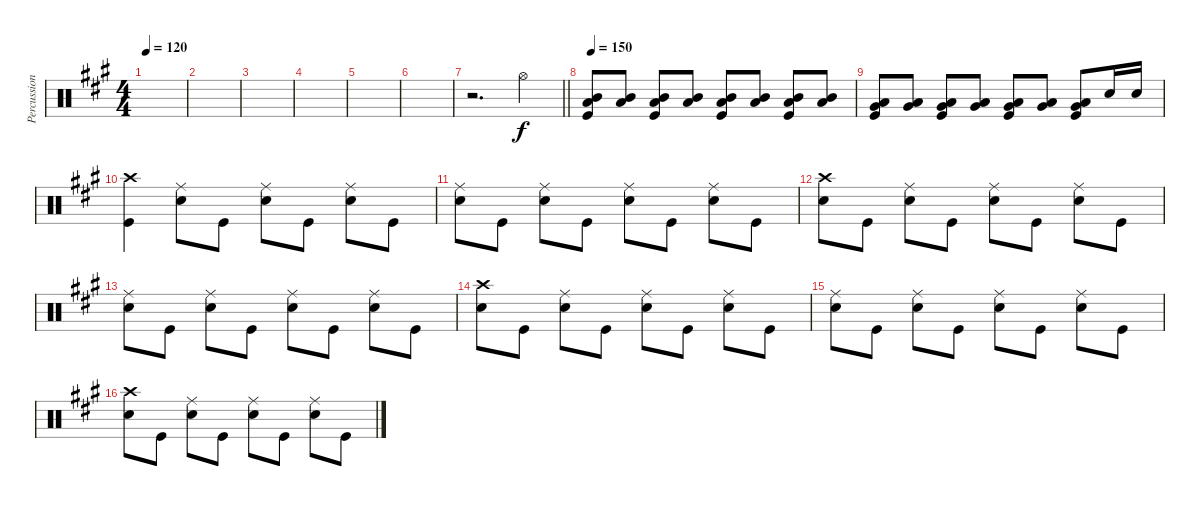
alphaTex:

\track ("Percussion" "Percussion") {instrument percussion}
\staff {score}
\articulation defaults
\ts (4 4)
\tempo 120
\clef neutral
\ks a
|
|
|
|
|
|
\barLineRight lightlight
r.2{d} "Hi-Hat (open)".4 |
\tempo 150
("Kick (hit)" "Mid Tom (hit)" "Low Tom (hit)").8 ("Mid Tom (hit)" "Low Tom (hit)").8 ("Kick (hit)" "Mid Tom (hit)" "Low Tom (hit)").8 ("Mid Tom (hit)" "Low Tom (hit)").8 ("Kick (hit)" "Mid Tom (hit)" "Low Tom (hit)").8 ("Mid Tom (hit)" "Low Tom (hit)").8 ("Kick (hit)" "Mid Tom (hit)" "Low Tom (hit)").8 ("Mid Tom (hit)" "Low Tom (hit)").8 |
("Kick (hit)" "Low Tom (hit)" "Very Low Tom (hit)").8 ("Low Tom (hit)" "Very Low Tom (hit)").8 ("Kick (hit)" "Low Tom (hit)" "Very Low Tom (hit)").8 ("Low Tom (hit)" "Very Low Tom (hit)").8 ("Kick (hit)" "Low Tom (hit)" "Very Low Tom (hit)").8 ("Low Tom (hit)" "Very Low Tom (hit)").8 ("Kick (hit)" "Low Tom (hit)" "Very Low Tom (hit)").8 "Snare (hit) 2".16 "Snare (hit) 2".16 |
("Kick (hit)" "Crash high (hit)").4 ("Snare (hit) 2" "Ride (middle)").8 "Kick (hit)".8 ("Snare (hit) 2" "Ride (middle)").8 "Kick (hit)".8 ("Snare (hit) 2" "Ride (middle)").8 "Kick (hit)".8 |
("Snare (hit) 2" "Ride (middle)").8 "Kick (hit)".8 ("Snare (hit) 2" "Ride (middle)").8 "Kick (hit)".8 ("Snare (hit) 2" "Ride (middle)").8 "Kick (hit)".8 ("Snare (hit) 2" "Ride (middle)").8 "Kick (hit)".8 |
("Snare (hit) 2" "Crash high (hit)").8 "Kick (hit)".8 ("Snare (hit) 2" "Ride (middle)").8 "Kick (hit)".8 ("Snare (hit) 2" "Ride (middle)").8 "Kick (hit)".8 ("Snare (hit) 2" "Ride (middle)").8 "Kick (hit)".8 |
("Snare (hit) 2" "Ride (middle)").8 "Kick (hit)".8 ("Snare (hit) 2" "Ride (middle)").8 "Kick (hit)".8 ("Snare (hit) 2" "Ride (middle)").8 "Kick (hit)".8 ("Snare (hit) 2" "Ride (middle)").8 "Kick (hit)".8 |
("Snare (hit) 2" "Crash high (hit)").8 "Kick (hit)".8 ("Snare (hit) 2" "Ride (middle)").8 "Kick (hit)".8 ("Snare (hit) 2" "Ride (middle)").8 "Kick (hit)".8 ("Snare (hit) 2" "Ride (middle)").8 "Kick (hit)".8 |
("Snare (hit) 2" "Ride (middle)").8 "Kick (hit)".8 ("Snare (hit) 2" "Ride (middle)").8 "Kick (hit)".8 ("Snare (hit) 2" "Ride (middle)").8 "Kick (hit)".8 ("Snare (hit) 2" "Ride (middle)").8 "Kick (hit)".8 |
("Snare (hit) 2" "Crash high (hit)").8 "Kick (hit)".8 ("Snare (hit) 2" "Ride (middle)").8 "Kick (hit)".8 ("Snare (hit) 2" "Ride (middle)").8 "Kick (hit)".8 ("Snare (hit) 2" "Ride (middle)").8 "Kick (hit)".8
